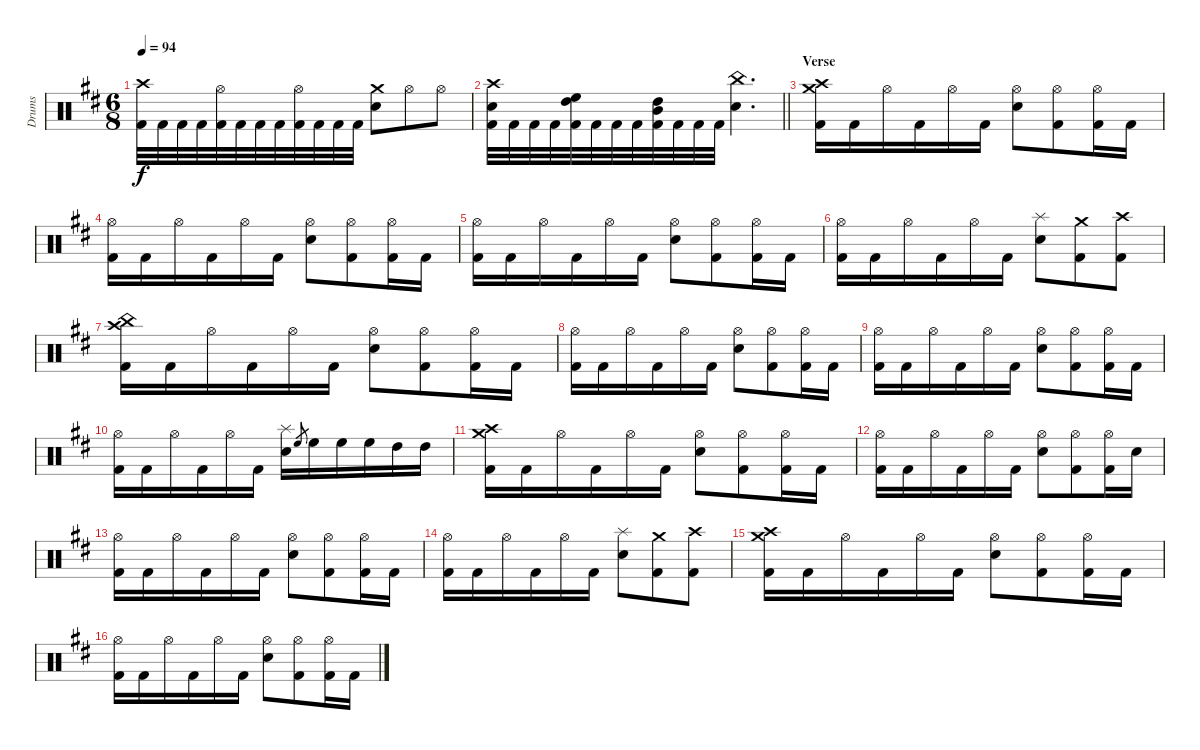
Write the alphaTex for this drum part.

\track ("Drums" "Drums") {instrument percussion}
\staff {score}
\articulation defaults
\ts (6 8)
\tempo 94
\clef neutral
\ks bminor
("Crash high (hit)" "Kick (hit) 2").32{dy f} "Kick (hit) 2".32 "Kick (hit) 2".32 "Kick (hit) 2".32 ("Hi-Hat (open)" "Kick (hit) 2").32 "Kick (hit) 2".32 "Kick (hit) 2".32 "Kick (hit) 2".32 ("Hi-Hat (open)" "Kick (hit) 2").32 "Kick (hit) 2".32 "Kick (hit) 2".32 "Kick (hit) 2".32 ("Crash medium (hit)" "Snare (hit) 2").8 "Hi-Hat (open)".8 "Hi-Hat (open)".8 |
\barLineRight lightlight
("Crash high (hit)" "Snare (hit) 2" "Kick (hit) 2").32 "Kick (hit) 2".32 "Kick (hit) 2".32 "Kick (hit) 2".32 ("High Tom (hit)" "High Floor Tom (hit)" "Kick (hit) 2").32 "Kick (hit) 2".32 "Kick (hit) 2".32 "Kick (hit) 2".32 ("High Tom (hit)" "Mid Tom (hit)" "Kick (hit) 2").32 "Kick (hit) 2".32 "Kick (hit) 2".32 "Kick (hit) 2".32 ("China (hit)" "Snare (hit) 2").4{d} |
\section ("" "Verse")
("Crash high (hit)" "Crash medium (hit)" "Kick (hit) 2").16 "Kick (hit) 2".16 "Hi-Hat (open)".16 "Kick (hit) 2".16 "Hi-Hat (open)".16 "Kick (hit) 2".16 ("Hi-Hat (open)" "Snare (hit) 2").8 ("Hi-Hat (open)" "Kick (hit) 2").8 ("Hi-Hat (open)" "Kick (hit) 2").16 "Kick (hit) 2".16 |
("Hi-Hat (open)" "Kick (hit) 2").16 "Kick (hit) 2".16 "Hi-Hat (open)".16 "Kick (hit) 2".16 "Hi-Hat (open)".16 "Kick (hit) 2".16 ("Hi-Hat (open)" "Snare (hit) 2").8 ("Hi-Hat (open)" "Kick (hit) 2").8 ("Hi-Hat (open)" "Kick (hit) 2").16 "Kick (hit) 2".16 |
("Hi-Hat (open)" "Kick (hit) 2").16 "Kick (hit) 2".16 "Hi-Hat (open)".16 "Kick (hit) 2".16 "Hi-Hat (open)".16 "Kick (hit) 2".16 ("Hi-Hat (open)" "Snare (hit) 2").8 ("Hi-Hat (open)" "Kick (hit) 2").8 ("Hi-Hat (open)" "Kick (hit) 2").16 "Kick (hit) 2".16 |
("Hi-Hat (open)" "Kick (hit) 2").16 "Kick (hit) 2".16 "Hi-Hat (open)".16 "Kick (hit) 2".16 "Hi-Hat (open)".16 "Kick (hit) 2".16 ("Splash (hit)" "Snare (hit) 2").8 ("Crash medium (hit)" "Kick (hit) 2").8 ("Crash high (hit)" "Kick (hit) 2").8 |
("Crash high (hit)" "China (hit)" "Kick (hit) 2").16 "Kick (hit) 2".16 "Hi-Hat (open)".16 "Kick (hit) 2".16 "Hi-Hat (open)".16 "Kick (hit) 2".16 ("Hi-Hat (open)" "Snare (hit) 2").8 ("Hi-Hat (open)" "Kick (hit) 2").8 ("Hi-Hat (open)" "Kick (hit) 2").16 "Kick (hit) 2".16 |
("Hi-Hat (open)" "Kick (hit) 2").16 "Kick (hit) 2".16 "Hi-Hat (open)".16 "Kick (hit) 2".16 "Hi-Hat (open)".16 "Kick (hit) 2".16 ("Hi-Hat (open)" "Snare (hit) 2").8 ("Hi-Hat (open)" "Kick (hit) 2").8 ("Hi-Hat (open)" "Kick (hit) 2").16 "Kick (hit) 2".16 |
("Hi-Hat (open)" "Kick (hit) 2").16 "Kick (hit) 2".16 "Hi-Hat (open)".16 "Kick (hit) 2".16 "Hi-Hat (open)".16 "Kick (hit) 2".16 ("Hi-Hat (open)" "Snare (hit) 2").8 ("Hi-Hat (open)" "Kick (hit) 2").8 ("Hi-Hat (open)" "Kick (hit) 2").16 "Kick (hit) 2".16 |
("Hi-Hat (open)" "Kick (hit) 2").16 "Kick (hit) 2".16 "Hi-Hat (open)".16 "Kick (hit) 2".16 "Hi-Hat (open)".16 "Kick (hit) 2".16 ("Splash (hit)" "Snare (hit) 2").16 "High Floor Tom (hit)".8{gr} "High Floor Tom (hit)".16 "High Floor Tom (hit)".16 "High Floor Tom (hit)".16 "High Tom (hit)".16 "High Tom (hit)".16 |
("Crash high (hit)" "Crash medium (hit)" "Kick (hit) 2").16 "Kick (hit) 2".16 "Hi-Hat (open)".16 "Kick (hit) 2".16 "Hi-Hat (open)".16 "Kick (hit) 2".16 ("Hi-Hat (open)" "Snare (hit) 2").8 ("Hi-Hat (open)" "Kick (hit) 2").8 ("Hi-Hat (open)" "Kick (hit) 2").16 "Kick (hit) 2".16 |
("Hi-Hat (open)" "Kick (hit) 2").16 "Kick (hit) 2".16 "Hi-Hat (open)".16 "Kick (hit) 2".16 "Hi-Hat (open)".16 "Kick (hit) 2".16 ("Hi-Hat (open)" "Snare (hit) 2").8 ("Hi-Hat (open)" "Kick (hit) 2").8 ("Hi-Hat (open)" "Kick (hit) 2").16 "Snare (hit) 2".16 |
("Hi-Hat (open)" "Kick (hit) 2").16 "Kick (hit) 2".16 "Hi-Hat (open)".16 "Kick (hit) 2".16 "Hi-Hat (open)".16 "Kick (hit) 2".16 ("Hi-Hat (open)" "Snare (hit) 2").8 ("Hi-Hat (open)" "Kick (hit) 2").8 ("Hi-Hat (open)" "Kick (hit) 2").16 "Kick (hit) 2".16 |
("Hi-Hat (open)" "Kick (hit) 2").16 "Kick (hit) 2".16 "Hi-Hat (open)".16 "Kick (hit) 2".16 "Hi-Hat (open)".16 "Kick (hit) 2".16 ("Splash (hit)" "Snare (hit) 2").8 ("Crash medium (hit)" "Kick (hit) 2").8 ("Crash high (hit)" "Kick (hit) 2").8 |
("Crash high (hit)" "Crash medium (hit)" "Kick (hit) 2").16 "Kick (hit) 2".16 "Hi-Hat (open)".16 "Kick (hit) 2".16 "Hi-Hat (open)".16 "Kick (hit) 2".16 ("Hi-Hat (open)" "Snare (hit) 2").8 ("Hi-Hat (open)" "Kick (hit) 2").8 ("Hi-Hat (open)" "Kick (hit) 2").16 "Kick (hit) 2".16 |
("Hi-Hat (open)" "Kick (hit) 2").16 "Kick (hit) 2".16 "Hi-Hat (open)".16 "Kick (hit) 2".16 "Hi-Hat (open)".16 "Kick (hit) 2".16 ("Hi-Hat (open)" "Snare (hit) 2").8 ("Hi-Hat (open)" "Kick (hit) 2").8 ("Hi-Hat (open)" "Kick (hit) 2").16 "Kick (hit) 2".16
